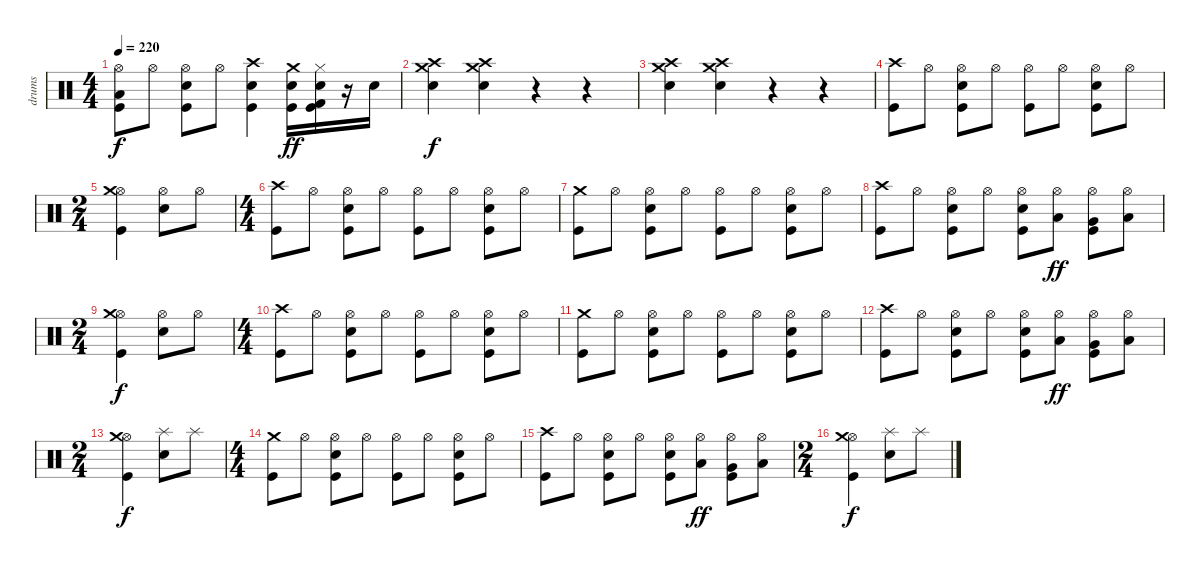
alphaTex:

\track ("drums" "drums") {instrument percussion}
\staff {score}
\articulation defaults
\ts (4 4)
\tempo 220
\clef neutral
\ks c
("Low Tom (hit)" "Kick (hit)" "Hi-Hat (open)").8{dy f} "Hi-Hat (open)".8 ("Electric Snare (hit)" "Kick (hit)" "Hi-Hat (open)").8 "Hi-Hat (open)".8 ("Crash high (hit)" "Electric Snare (hit)" "Kick (hit)").4 ("Crash medium (hit)" "Electric Snare (hit)" "Kick (hit)").16{dy ff} ("Electric Snare (hit)" "Hi-Hat (closed)" "Kick (hit) 2" "Kick (hit)").16 r.16 "Electric Snare (hit)".16 |
("Crash medium (hit)" "Crash high (hit)" "Electric Snare (hit)").4{dy f} ("Crash medium (hit)" "Crash high (hit)" "Electric Snare (hit)").4 r.4 r.4 |
("Crash medium (hit)" "Crash high (hit)" "Electric Snare (hit)").4 ("Crash medium (hit)" "Crash high (hit)" "Electric Snare (hit)").4 r.4 r.4 |
("Crash high (hit)" "Kick (hit)").8 "Hi-Hat (open)".8 ("Hi-Hat (open)" "Electric Snare (hit)" "Kick (hit)").8 "Hi-Hat (open)".8 ("Hi-Hat (open)" "Kick (hit)").8 "Hi-Hat (open)".8 ("Hi-Hat (open)" "Electric Snare (hit)" "Kick (hit)").8 "Hi-Hat (open)".8 |
\ts (2 4)
("Hi-Hat (open)" "Crash medium (hit)" "Kick (hit)").4 ("Hi-Hat (open)" "Electric Snare (hit)").8 "Hi-Hat (open)".8 |
\ts (4 4)
("Crash high (hit)" "Kick (hit)").8 "Hi-Hat (open)".8 ("Hi-Hat (open)" "Electric Snare (hit)" "Kick (hit)").8 "Hi-Hat (open)".8 ("Hi-Hat (open)" "Kick (hit)").8 "Hi-Hat (open)".8 ("Hi-Hat (open)" "Electric Snare (hit)" "Kick (hit)").8 "Hi-Hat (open)".8 |
("Crash medium (hit)" "Kick (hit)").8 "Hi-Hat (open)".8 ("Hi-Hat (open)" "Electric Snare (hit)" "Kick (hit)").8 "Hi-Hat (open)".8 ("Hi-Hat (open)" "Kick (hit)").8 "Hi-Hat (open)".8 ("Hi-Hat (open)" "Electric Snare (hit)" "Kick (hit)").8 "Hi-Hat (open)".8 |
("Crash high (hit)" "Kick (hit)").8 "Hi-Hat (open)".8 ("Hi-Hat (open)" "Electric Snare (hit)" "Kick (hit)").8 "Hi-Hat (open)".8 ("Hi-Hat (open)" "Electric Snare (hit)" "Kick (hit)").8 ("Hi-Hat (open)" "Low Floor Tom (hit)").8{dy ff} ("Hi-Hat (open)" "Very Low Tom (hit)" "Kick (hit)").8 ("Hi-Hat (open)" "Low Tom (hit)").8 |
\ts (2 4)
("Hi-Hat (open)" "Crash medium (hit)" "Kick (hit)").4{dy f} ("Hi-Hat (open)" "Electric Snare (hit)").8 "Hi-Hat (open)".8 |
\ts (4 4)
("Crash high (hit)" "Kick (hit)").8 "Hi-Hat (open)".8 ("Hi-Hat (open)" "Electric Snare (hit)" "Kick (hit)").8 "Hi-Hat (open)".8 ("Hi-Hat (open)" "Kick (hit)").8 "Hi-Hat (open)".8 ("Hi-Hat (open)" "Electric Snare (hit)" "Kick (hit)").8 "Hi-Hat (open)".8 |
("Crash medium (hit)" "Kick (hit)").8 "Hi-Hat (open)".8 ("Hi-Hat (open)" "Electric Snare (hit)" "Kick (hit)").8 "Hi-Hat (open)".8 ("Hi-Hat (open)" "Kick (hit)").8 "Hi-Hat (open)".8 ("Hi-Hat (open)" "Electric Snare (hit)" "Kick (hit)").8 "Hi-Hat (open)".8 |
("Crash high (hit)" "Kick (hit)").8 "Hi-Hat (open)".8 ("Hi-Hat (open)" "Electric Snare (hit)" "Kick (hit)").8 "Hi-Hat (open)".8 ("Hi-Hat (open)" "Electric Snare (hit)" "Kick (hit)").8 ("Hi-Hat (open)" "Low Floor Tom (hit)").8{dy ff} ("Hi-Hat (open)" "Very Low Tom (hit)" "Kick (hit)").8 ("Hi-Hat (open)" "Low Tom (hit)").8 |
\ts (2 4)
("Hi-Hat (open)" "Crash medium (hit)" "Kick (hit)").4{dy f} ("Splash (hit)" "Electric Snare (hit)").8 "Splash (hit)".8 |
\ts (4 4)
("Crash medium (hit)" "Kick (hit)").8 "Hi-Hat (open)".8 ("Hi-Hat (open)" "Electric Snare (hit)" "Kick (hit)").8 "Hi-Hat (open)".8 ("Hi-Hat (open)" "Kick (hit)").8 "Hi-Hat (open)".8 ("Hi-Hat (open)" "Electric Snare (hit)" "Kick (hit)").8 "Hi-Hat (open)".8 |
("Crash high (hit)" "Kick (hit)").8 "Hi-Hat (open)".8 ("Hi-Hat (open)" "Electric Snare (hit)" "Kick (hit)").8 "Hi-Hat (open)".8 ("Hi-Hat (open)" "Electric Snare (hit)" "Kick (hit)").8 ("Hi-Hat (open)" "Low Floor Tom (hit)").8{dy ff} ("Hi-Hat (open)" "Very Low Tom (hit)" "Kick (hit)").8 ("Hi-Hat (open)" "Low Tom (hit)").8 |
\ts (2 4)
("Hi-Hat (open)" "Crash medium (hit)" "Kick (hit)").4{dy f} ("Splash (hit)" "Electric Snare (hit)").8 "Splash (hit)".8
